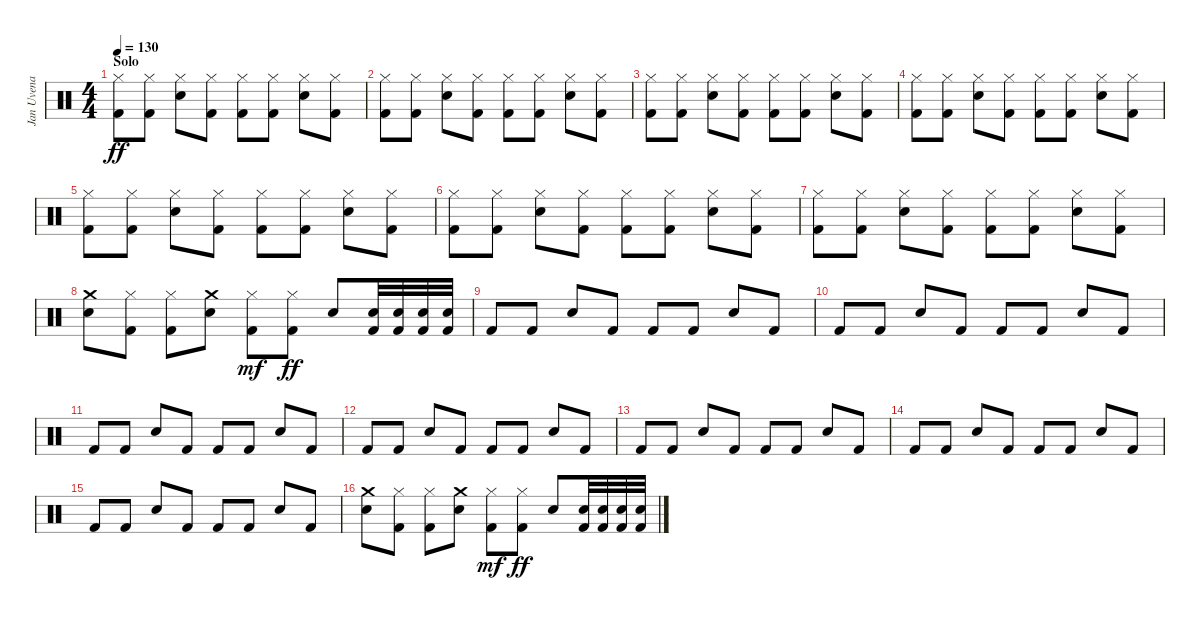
\track ("Jan Uvena" "Jan Uvena") {instrument percussion}
\staff {score}
\articulation defaults
\ts (4 4)
\section ("" "Solo")
\tempo 130
\clef neutral
\ks c
("Hi-Hat (closed)" "Kick (hit) 2").8{dy ff} ("Hi-Hat (closed)" "Kick (hit) 2").8 ("Hi-Hat (closed)" "Snare (hit) 2").8 ("Hi-Hat (closed)" "Kick (hit) 2").8 ("Hi-Hat (closed)" "Kick (hit) 2").8 ("Hi-Hat (closed)" "Kick (hit) 2").8 ("Hi-Hat (closed)" "Snare (hit) 2").8 ("Hi-Hat (closed)" "Kick (hit) 2").8 |
("Hi-Hat (closed)" "Kick (hit) 2").8 ("Hi-Hat (closed)" "Kick (hit) 2").8 ("Hi-Hat (closed)" "Snare (hit) 2").8 ("Hi-Hat (closed)" "Kick (hit) 2").8 ("Hi-Hat (closed)" "Kick (hit) 2").8 ("Hi-Hat (closed)" "Kick (hit) 2").8 ("Hi-Hat (closed)" "Snare (hit) 2").8 ("Hi-Hat (closed)" "Kick (hit) 2").8 |
("Hi-Hat (closed)" "Kick (hit) 2").8 ("Hi-Hat (closed)" "Kick (hit) 2").8 ("Hi-Hat (closed)" "Snare (hit) 2").8 ("Hi-Hat (closed)" "Kick (hit) 2").8 ("Hi-Hat (closed)" "Kick (hit) 2").8 ("Hi-Hat (closed)" "Kick (hit) 2").8 ("Hi-Hat (closed)" "Snare (hit) 2").8 ("Hi-Hat (closed)" "Kick (hit) 2").8 |
("Hi-Hat (closed)" "Kick (hit) 2").8 ("Hi-Hat (closed)" "Kick (hit) 2").8 ("Hi-Hat (closed)" "Snare (hit) 2").8 ("Hi-Hat (closed)" "Kick (hit) 2").8 ("Hi-Hat (closed)" "Kick (hit) 2").8 ("Hi-Hat (closed)" "Kick (hit) 2").8 ("Hi-Hat (closed)" "Snare (hit) 2").8 ("Hi-Hat (closed)" "Kick (hit) 2").8 |
("Hi-Hat (closed)" "Kick (hit) 2").8 ("Hi-Hat (closed)" "Kick (hit) 2").8 ("Hi-Hat (closed)" "Snare (hit) 2").8 ("Hi-Hat (closed)" "Kick (hit) 2").8 ("Hi-Hat (closed)" "Kick (hit) 2").8 ("Hi-Hat (closed)" "Kick (hit) 2").8 ("Hi-Hat (closed)" "Snare (hit) 2").8 ("Hi-Hat (closed)" "Kick (hit) 2").8 |
("Hi-Hat (closed)" "Kick (hit) 2").8 ("Hi-Hat (closed)" "Kick (hit) 2").8 ("Hi-Hat (closed)" "Snare (hit) 2").8 ("Hi-Hat (closed)" "Kick (hit) 2").8 ("Hi-Hat (closed)" "Kick (hit) 2").8 ("Hi-Hat (closed)" "Kick (hit) 2").8 ("Hi-Hat (closed)" "Snare (hit) 2").8 ("Hi-Hat (closed)" "Kick (hit) 2").8 |
("Hi-Hat (closed)" "Kick (hit) 2").8 ("Hi-Hat (closed)" "Kick (hit) 2").8 ("Hi-Hat (closed)" "Snare (hit) 2").8 ("Hi-Hat (closed)" "Kick (hit) 2").8 ("Hi-Hat (closed)" "Kick (hit) 2").8 ("Hi-Hat (closed)" "Kick (hit) 2").8 ("Hi-Hat (closed)" "Snare (hit) 2").8 ("Hi-Hat (closed)" "Kick (hit) 2").8 |
("Crash medium (hit)" "Snare (hit) 2").8 ("Hi-Hat (closed)" "Kick (hit) 2").8 ("Hi-Hat (closed)" "Kick (hit) 2").8 ("Crash medium (hit)" "Snare (hit) 2").8 ("Hi-Hat (closed)" "Kick (hit) 2").8{dy mf} ("Hi-Hat (closed)" "Kick (hit) 2").8{dy ff} "Snare (hit) 2".8 ("Snare (hit) 2" "Kick (hit) 2").32 ("Snare (hit) 2" "Kick (hit) 2").32 ("Snare (hit) 2" "Kick (hit) 2").32 ("Snare (hit) 2" "Kick (hit) 2").32 |
"Kick (hit) 2".8 "Kick (hit) 2".8 "Snare (hit) 2".8 "Kick (hit) 2".8 "Kick (hit) 2".8 "Kick (hit) 2".8 "Snare (hit) 2".8 "Kick (hit) 2".8 |
"Kick (hit) 2".8 "Kick (hit) 2".8 "Snare (hit) 2".8 "Kick (hit) 2".8 "Kick (hit) 2".8 "Kick (hit) 2".8 "Snare (hit) 2".8 "Kick (hit) 2".8 |
"Kick (hit) 2".8 "Kick (hit) 2".8 "Snare (hit) 2".8 "Kick (hit) 2".8 "Kick (hit) 2".8 "Kick (hit) 2".8 "Snare (hit) 2".8 "Kick (hit) 2".8 |
"Kick (hit) 2".8 "Kick (hit) 2".8 "Snare (hit) 2".8 "Kick (hit) 2".8 "Kick (hit) 2".8 "Kick (hit) 2".8 "Snare (hit) 2".8 "Kick (hit) 2".8 |
"Kick (hit) 2".8 "Kick (hit) 2".8 "Snare (hit) 2".8 "Kick (hit) 2".8 "Kick (hit) 2".8 "Kick (hit) 2".8 "Snare (hit) 2".8 "Kick (hit) 2".8 |
"Kick (hit) 2".8 "Kick (hit) 2".8 "Snare (hit) 2".8 "Kick (hit) 2".8 "Kick (hit) 2".8 "Kick (hit) 2".8 "Snare (hit) 2".8 "Kick (hit) 2".8 |
"Kick (hit) 2".8 "Kick (hit) 2".8 "Snare (hit) 2".8 "Kick (hit) 2".8 "Kick (hit) 2".8 "Kick (hit) 2".8 "Snare (hit) 2".8 "Kick (hit) 2".8 |
("Crash medium (hit)" "Snare (hit) 2").8 ("Hi-Hat (closed)" "Kick (hit) 2").8 ("Hi-Hat (closed)" "Kick (hit) 2").8 ("Crash medium (hit)" "Snare (hit) 2").8 ("Hi-Hat (closed)" "Kick (hit) 2").8{dy mf} ("Hi-Hat (closed)" "Kick (hit) 2").8{dy ff} "Snare (hit) 2".8 ("Snare (hit) 2" "Kick (hit) 2").32 ("Snare (hit) 2" "Kick (hit) 2").32 ("Snare (hit) 2" "Kick (hit) 2").32 ("Snare (hit) 2" "Kick (hit) 2").32
